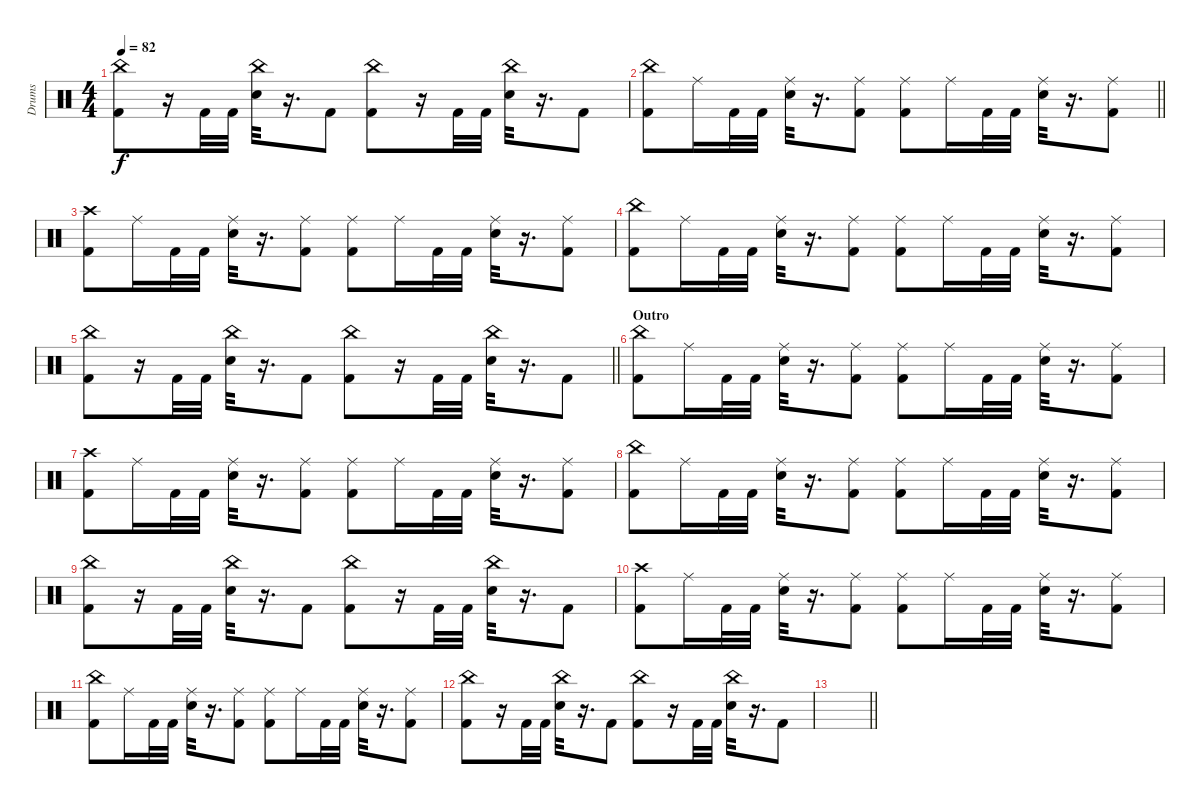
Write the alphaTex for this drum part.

\track ("Drums" "Drums") {instrument percussion}
\staff {score}
\articulation defaults
\ts (4 4)
\tempo 82
\clef neutral
\ks c
("China (hit)" "Kick (hit) 2").8{dy f} r.16 "Kick (hit) 2".32 "Kick (hit) 2".32 ("China (hit)" "Electric Snare (hit)").32 r.16{d} "Kick (hit) 2".8 ("China (hit)" "Kick (hit) 2").8 r.16 "Kick (hit) 2".32 "Kick (hit) 2".32 ("China (hit)" "Electric Snare (hit)").32 r.16{d} "Kick (hit) 2".8 |
\barLineRight lightlight
("China (hit)" "Kick (hit) 2").8 "Ride (middle)".16 "Kick (hit) 2".32 "Kick (hit) 2".32 ("Ride (middle)" "Electric Snare (hit)").32 r.16{d} ("Ride (middle)" "Kick (hit) 2").8 ("Ride (middle)" "Kick (hit) 2").8 "Ride (middle)".16 "Kick (hit) 2".32 "Kick (hit) 2".32 ("Ride (middle)" "Electric Snare (hit)").32 r.16{d} ("Ride (middle)" "Kick (hit) 2").8 |
("Crash high (hit)" "Kick (hit) 2").8 "Ride (middle)".16 "Kick (hit) 2".32 "Kick (hit) 2".32 ("Ride (middle)" "Electric Snare (hit)").32 r.16{d} ("Ride (middle)" "Kick (hit) 2").8 ("Ride (middle)" "Kick (hit) 2").8 "Ride (middle)".16 "Kick (hit) 2".32 "Kick (hit) 2".32 ("Ride (middle)" "Electric Snare (hit)").32 r.16{d} ("Ride (middle)" "Kick (hit) 2").8 |
("China (hit)" "Kick (hit) 2").8 "Ride (middle)".16 "Kick (hit) 2".32 "Kick (hit) 2".32 ("Ride (middle)" "Electric Snare (hit)").32 r.16{d} ("Ride (middle)" "Kick (hit) 2").8 ("Ride (middle)" "Kick (hit) 2").8 "Ride (middle)".16 "Kick (hit) 2".32 "Kick (hit) 2".32 ("Ride (middle)" "Electric Snare (hit)").32 r.16{d} ("Ride (middle)" "Kick (hit) 2").8 |
\barLineRight lightlight
("China (hit)" "Kick (hit) 2").8 r.16 "Kick (hit) 2".32 "Kick (hit) 2".32 ("China (hit)" "Electric Snare (hit)").32 r.16{d} "Kick (hit) 2".8 ("China (hit)" "Kick (hit) 2").8 r.16 "Kick (hit) 2".32 "Kick (hit) 2".32 ("China (hit)" "Electric Snare (hit)").32 r.16{d} "Kick (hit) 2".8 |
\section ("" "Outro")
("China (hit)" "Kick (hit) 2").8 "Ride (middle)".16 "Kick (hit) 2".32 "Kick (hit) 2".32 ("Ride (middle)" "Electric Snare (hit)").32 r.16{d} ("Ride (middle)" "Kick (hit) 2").8 ("Ride (middle)" "Kick (hit) 2").8 "Ride (middle)".16 "Kick (hit) 2".32 "Kick (hit) 2".32 ("Ride (middle)" "Electric Snare (hit)").32 r.16{d} ("Ride (middle)" "Kick (hit) 2").8 |
("Crash high (hit)" "Kick (hit) 2").8 "Ride (middle)".16 "Kick (hit) 2".32 "Kick (hit) 2".32 ("Ride (middle)" "Electric Snare (hit)").32 r.16{d} ("Ride (middle)" "Kick (hit) 2").8 ("Ride (middle)" "Kick (hit) 2").8 "Ride (middle)".16 "Kick (hit) 2".32 "Kick (hit) 2".32 ("Ride (middle)" "Electric Snare (hit)").32 r.16{d} ("Ride (middle)" "Kick (hit) 2").8 |
("China (hit)" "Kick (hit) 2").8 "Ride (middle)".16 "Kick (hit) 2".32 "Kick (hit) 2".32 ("Ride (middle)" "Electric Snare (hit)").32 r.16{d} ("Ride (middle)" "Kick (hit) 2").8 ("Ride (middle)" "Kick (hit) 2").8 "Ride (middle)".16 "Kick (hit) 2".32 "Kick (hit) 2".32 ("Ride (middle)" "Electric Snare (hit)").32 r.16{d} ("Ride (middle)" "Kick (hit) 2").8 |
("China (hit)" "Kick (hit) 2").8{volume 0} r.16 "Kick (hit) 2".32 "Kick (hit) 2".32 ("China (hit)" "Electric Snare (hit)").32 r.16{d} "Kick (hit) 2".8 ("China (hit)" "Kick (hit) 2").8 r.16 "Kick (hit) 2".32 "Kick (hit) 2".32 ("China (hit)" "Electric Snare (hit)").32 r.16{d} "Kick (hit) 2".8 |
("Crash high (hit)" "Kick (hit) 2").8 "Ride (middle)".16 "Kick (hit) 2".32 "Kick (hit) 2".32 ("Ride (middle)" "Electric Snare (hit)").32 r.16{d} ("Ride (middle)" "Kick (hit) 2").8 ("Ride (middle)" "Kick (hit) 2").8 "Ride (middle)".16 "Kick (hit) 2".32 "Kick (hit) 2".32 ("Ride (middle)" "Electric Snare (hit)").32 r.16{d} ("Ride (middle)" "Kick (hit) 2").8 |
("China (hit)" "Kick (hit) 2").8 "Ride (middle)".16 "Kick (hit) 2".32 "Kick (hit) 2".32 ("Ride (middle)" "Electric Snare (hit)").32 r.16{d} ("Ride (middle)" "Kick (hit) 2").8 ("Ride (middle)" "Kick (hit) 2").8 "Ride (middle)".16 "Kick (hit) 2".32 "Kick (hit) 2".32 ("Ride (middle)" "Electric Snare (hit)").32 r.16{d} ("Ride (middle)" "Kick (hit) 2").8 |
("China (hit)" "Kick (hit) 2").8 r.16 "Kick (hit) 2".32 "Kick (hit) 2".32 ("China (hit)" "Electric Snare (hit)").32 r.16{d} "Kick (hit) 2".8 ("China (hit)" "Kick (hit) 2").8 r.16 "Kick (hit) 2".32 "Kick (hit) 2".32 ("China (hit)" "Electric Snare (hit)").32 r.16{d} "Kick (hit) 2".8 |
\barLineRight lightlight
